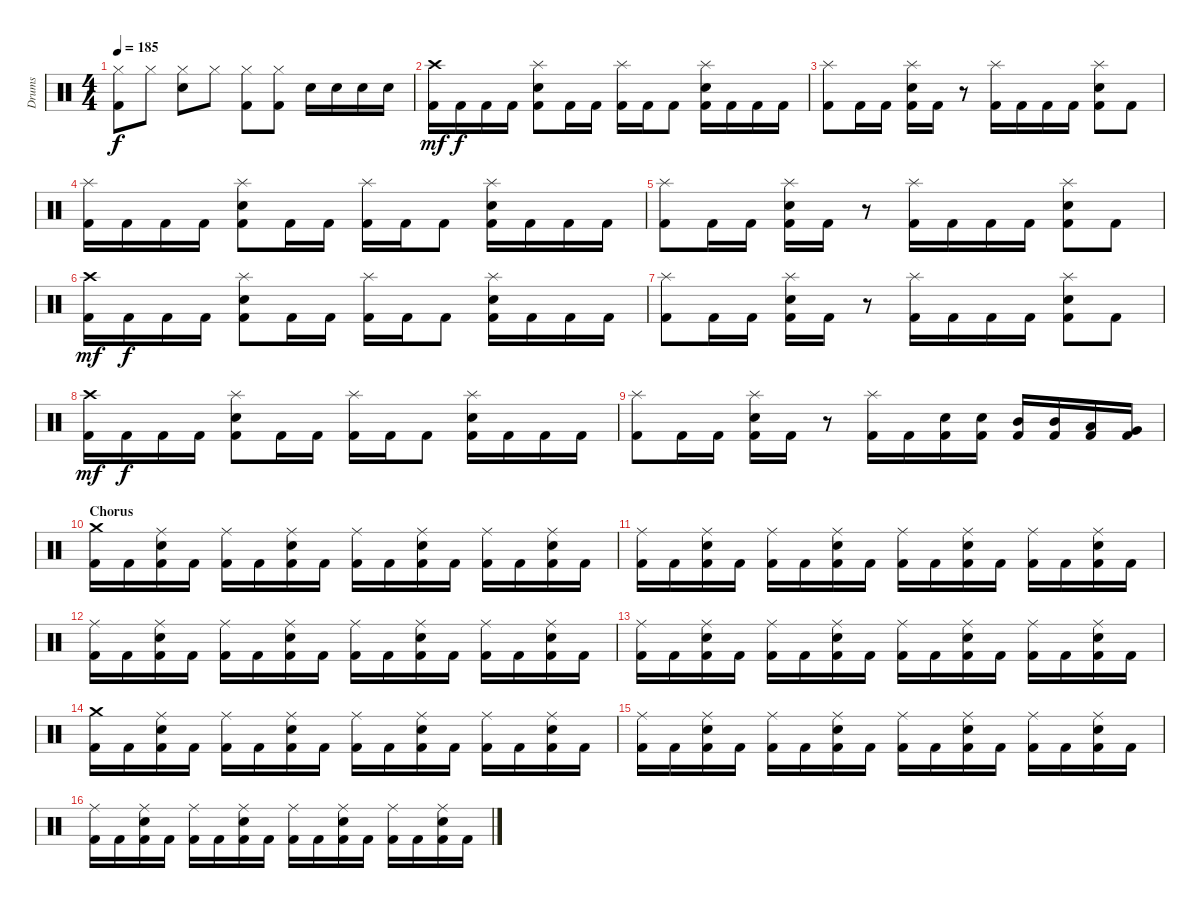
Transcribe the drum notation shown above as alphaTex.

\track ("Drums" "Drums") {instrument percussion}
\staff {score}
\articulation defaults
\ts (4 4)
\tempo 185
\clef neutral
\ks c
("Kick (hit) 2" "Hi-Hat (closed)").8{dy f} "Hi-Hat (closed)".8 ("Electric Snare (hit)" "Hi-Hat (closed)").8 "Hi-Hat (closed)".8 ("Kick (hit) 2" "Hi-Hat (closed)").8 ("Kick (hit) 2" "Hi-Hat (closed)").8 "Electric Snare (hit)".16 "Electric Snare (hit)".16 "Electric Snare (hit)".16 "Electric Snare (hit)".16 |
\section ("" "")
("Kick (hit) 2" "Crash high (hit)").16{dy mf} "Kick (hit) 2".16{dy f} "Kick (hit) 2".16 "Kick (hit) 2".16 ("Kick (hit) 2" "Electric Snare (hit)" "Splash (hit)").8 "Kick (hit) 2".16 "Kick (hit) 2".16 ("Kick (hit) 2" "Splash (hit)").16 "Kick (hit) 2".16 "Kick (hit) 2".8 ("Kick (hit) 2" "Electric Snare (hit)" "Splash (hit)").16 "Kick (hit) 2".16 "Kick (hit) 2".16 "Kick (hit) 2".16 |
("Kick (hit) 2" "Splash (hit)").8 "Kick (hit) 2".16 "Kick (hit) 2".16 ("Kick (hit) 2" "Electric Snare (hit)" "Splash (hit)").16 "Kick (hit) 2".16 r.8 ("Kick (hit) 2" "Splash (hit)").16 "Kick (hit) 2".16 "Kick (hit) 2".16 "Kick (hit) 2".16 ("Kick (hit) 2" "Electric Snare (hit)" "Splash (hit)").8 "Kick (hit) 2".8 |
("Kick (hit) 2" "Splash (hit)").16 "Kick (hit) 2".16 "Kick (hit) 2".16 "Kick (hit) 2".16 ("Kick (hit) 2" "Electric Snare (hit)" "Splash (hit)").8 "Kick (hit) 2".16 "Kick (hit) 2".16 ("Kick (hit) 2" "Splash (hit)").16 "Kick (hit) 2".16 "Kick (hit) 2".8 ("Kick (hit) 2" "Electric Snare (hit)" "Splash (hit)").16 "Kick (hit) 2".16 "Kick (hit) 2".16 "Kick (hit) 2".16 |
("Kick (hit) 2" "Splash (hit)").8 "Kick (hit) 2".16 "Kick (hit) 2".16 ("Kick (hit) 2" "Electric Snare (hit)" "Splash (hit)").16 "Kick (hit) 2".16 r.8 ("Kick (hit) 2" "Splash (hit)").16 "Kick (hit) 2".16 "Kick (hit) 2".16 "Kick (hit) 2".16 ("Kick (hit) 2" "Electric Snare (hit)" "Splash (hit)").8 "Kick (hit) 2".8 |
("Kick (hit) 2" "Crash high (hit)").16{dy mf} "Kick (hit) 2".16{dy f} "Kick (hit) 2".16 "Kick (hit) 2".16 ("Kick (hit) 2" "Electric Snare (hit)" "Splash (hit)").8 "Kick (hit) 2".16 "Kick (hit) 2".16 ("Kick (hit) 2" "Splash (hit)").16 "Kick (hit) 2".16 "Kick (hit) 2".8 ("Kick (hit) 2" "Electric Snare (hit)" "Splash (hit)").16 "Kick (hit) 2".16 "Kick (hit) 2".16 "Kick (hit) 2".16 |
("Kick (hit) 2" "Splash (hit)").8 "Kick (hit) 2".16 "Kick (hit) 2".16 ("Kick (hit) 2" "Electric Snare (hit)" "Splash (hit)").16 "Kick (hit) 2".16 r.8 ("Kick (hit) 2" "Splash (hit)").16 "Kick (hit) 2".16 "Kick (hit) 2".16 "Kick (hit) 2".16 ("Kick (hit) 2" "Electric Snare (hit)" "Splash (hit)").8 "Kick (hit) 2".8 |
("Kick (hit) 2" "Crash high (hit)").16{dy mf} "Kick (hit) 2".16{dy f} "Kick (hit) 2".16 "Kick (hit) 2".16 ("Kick (hit) 2" "Electric Snare (hit)" "Splash (hit)").8 "Kick (hit) 2".16 "Kick (hit) 2".16 ("Kick (hit) 2" "Splash (hit)").16 "Kick (hit) 2".16 "Kick (hit) 2".8 ("Kick (hit) 2" "Electric Snare (hit)" "Splash (hit)").16 "Kick (hit) 2".16 "Kick (hit) 2".16 "Kick (hit) 2".16 |
("Kick (hit) 2" "Splash (hit)").8 "Kick (hit) 2".16 "Kick (hit) 2".16 ("Kick (hit) 2" "Electric Snare (hit)" "Splash (hit)").16 "Kick (hit) 2".16 r.8 ("Kick (hit) 2" "Splash (hit)").16 "Kick (hit) 2".16 ("Kick (hit) 2" "Electric Snare (hit)").16 ("Kick (hit) 2" "Electric Snare (hit)").16 ("Kick (hit) 2" "Mid Tom (hit)").16 ("Kick (hit) 2" "Mid Tom (hit)").16 ("Kick (hit) 2" "Low Tom (hit)").16 ("Kick (hit) 2" "Very Low Tom (hit)").16 |
\section ("" "Chorus")
("Kick (hit) 2" "Crash medium (hit)").16 "Kick (hit) 2".16 ("Kick (hit) 2" "Electric Snare (hit)" "Ride (middle)").16 "Kick (hit) 2".16 ("Kick (hit) 2" "Ride (middle)").16 "Kick (hit) 2".16 ("Kick (hit) 2" "Electric Snare (hit)" "Ride (middle)").16 "Kick (hit) 2".16 ("Kick (hit) 2" "Ride (middle)").16 "Kick (hit) 2".16 ("Kick (hit) 2" "Electric Snare (hit)" "Ride (middle)").16 "Kick (hit) 2".16 ("Kick (hit) 2" "Ride (middle)").16 "Kick (hit) 2".16 ("Kick (hit) 2" "Electric Snare (hit)" "Ride (middle)").16 "Kick (hit) 2".16 |
("Kick (hit) 2" "Ride (middle)").16 "Kick (hit) 2".16 ("Kick (hit) 2" "Electric Snare (hit)" "Ride (middle)").16 "Kick (hit) 2".16 ("Kick (hit) 2" "Ride (middle)").16 "Kick (hit) 2".16 ("Kick (hit) 2" "Electric Snare (hit)" "Ride (middle)").16 "Kick (hit) 2".16 ("Kick (hit) 2" "Ride (middle)").16 "Kick (hit) 2".16 ("Kick (hit) 2" "Electric Snare (hit)" "Ride (middle)").16 "Kick (hit) 2".16 ("Kick (hit) 2" "Ride (middle)").16 "Kick (hit) 2".16 ("Kick (hit) 2" "Electric Snare (hit)" "Ride (middle)").16 "Kick (hit) 2".16 |
("Kick (hit) 2" "Ride (middle)").16 "Kick (hit) 2".16 ("Kick (hit) 2" "Electric Snare (hit)" "Ride (middle)").16 "Kick (hit) 2".16 ("Kick (hit) 2" "Ride (middle)").16 "Kick (hit) 2".16 ("Kick (hit) 2" "Electric Snare (hit)" "Ride (middle)").16 "Kick (hit) 2".16 ("Kick (hit) 2" "Ride (middle)").16 "Kick (hit) 2".16 ("Kick (hit) 2" "Electric Snare (hit)" "Ride (middle)").16 "Kick (hit) 2".16 ("Kick (hit) 2" "Ride (middle)").16 "Kick (hit) 2".16 ("Kick (hit) 2" "Electric Snare (hit)" "Ride (middle)").16 "Kick (hit) 2".16 |
("Kick (hit) 2" "Ride (middle)").16 "Kick (hit) 2".16 ("Kick (hit) 2" "Electric Snare (hit)" "Ride (middle)").16 "Kick (hit) 2".16 ("Kick (hit) 2" "Ride (middle)").16 "Kick (hit) 2".16 ("Kick (hit) 2" "Electric Snare (hit)" "Ride (middle)").16 "Kick (hit) 2".16 ("Kick (hit) 2" "Ride (middle)").16 "Kick (hit) 2".16 ("Kick (hit) 2" "Electric Snare (hit)" "Ride (middle)").16 "Kick (hit) 2".16 ("Kick (hit) 2" "Ride (middle)").16 "Kick (hit) 2".16 ("Kick (hit) 2" "Electric Snare (hit)" "Ride (middle)").16 "Kick (hit) 2".16 |
("Kick (hit) 2" "Crash medium (hit)").16 "Kick (hit) 2".16 ("Kick (hit) 2" "Electric Snare (hit)" "Ride (middle)").16 "Kick (hit) 2".16 ("Kick (hit) 2" "Ride (middle)").16 "Kick (hit) 2".16 ("Kick (hit) 2" "Electric Snare (hit)" "Ride (middle)").16 "Kick (hit) 2".16 ("Kick (hit) 2" "Ride (middle)").16 "Kick (hit) 2".16 ("Kick (hit) 2" "Electric Snare (hit)" "Ride (middle)").16 "Kick (hit) 2".16 ("Kick (hit) 2" "Ride (middle)").16 "Kick (hit) 2".16 ("Kick (hit) 2" "Electric Snare (hit)" "Ride (middle)").16 "Kick (hit) 2".16 |
("Kick (hit) 2" "Ride (middle)").16 "Kick (hit) 2".16 ("Kick (hit) 2" "Electric Snare (hit)" "Ride (middle)").16 "Kick (hit) 2".16 ("Kick (hit) 2" "Ride (middle)").16 "Kick (hit) 2".16 ("Kick (hit) 2" "Electric Snare (hit)" "Ride (middle)").16 "Kick (hit) 2".16 ("Kick (hit) 2" "Ride (middle)").16 "Kick (hit) 2".16 ("Kick (hit) 2" "Electric Snare (hit)" "Ride (middle)").16 "Kick (hit) 2".16 ("Kick (hit) 2" "Ride (middle)").16 "Kick (hit) 2".16 ("Kick (hit) 2" "Electric Snare (hit)" "Ride (middle)").16 "Kick (hit) 2".16 |
("Kick (hit) 2" "Ride (middle)").16 "Kick (hit) 2".16 ("Kick (hit) 2" "Electric Snare (hit)" "Ride (middle)").16 "Kick (hit) 2".16 ("Kick (hit) 2" "Ride (middle)").16 "Kick (hit) 2".16 ("Kick (hit) 2" "Electric Snare (hit)" "Ride (middle)").16 "Kick (hit) 2".16 ("Kick (hit) 2" "Ride (middle)").16 "Kick (hit) 2".16 ("Kick (hit) 2" "Electric Snare (hit)" "Ride (middle)").16 "Kick (hit) 2".16 ("Kick (hit) 2" "Ride (middle)").16 "Kick (hit) 2".16 ("Kick (hit) 2" "Electric Snare (hit)" "Ride (middle)").16 "Kick (hit) 2".16
